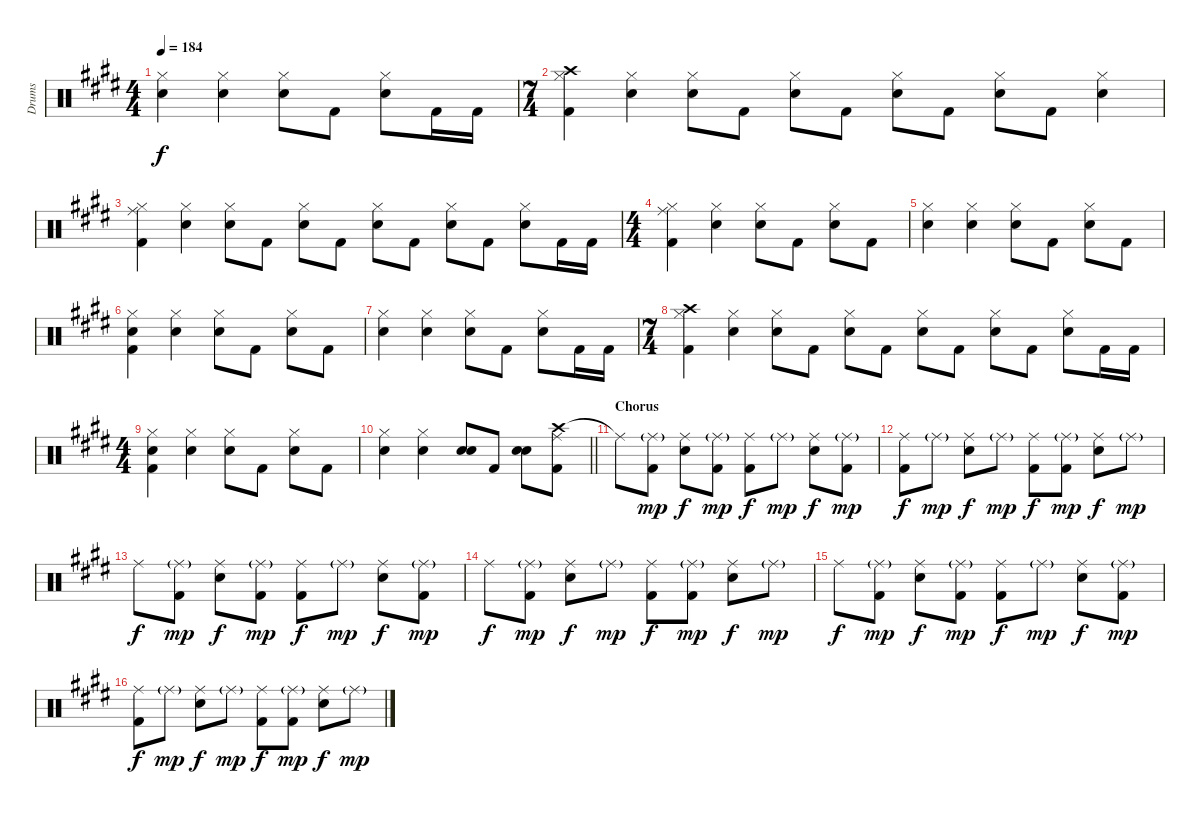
\track ("Drums" "Drums") {instrument percussion}
\staff {score}
\articulation defaults
\ts (4 4)
\tempo 184
\clef neutral
\ks c#minor
("Hi-Hat (closed)" "Snare (hit) 2").4{dy f} ("Hi-Hat (closed)" "Snare (hit) 2").4 ("Hi-Hat (closed)" "Snare (hit) 2").8 "Kick (hit) 2".8 ("Hi-Hat (closed)" "Snare (hit) 2").8 "Kick (hit) 2".16 "Kick (hit) 2".16 |
\ts (7 4)
("Crash high (hit)" "Hi-Hat (closed)" "Kick (hit) 2").4 ("Hi-Hat (closed)" "Snare (hit) 2").4 ("Hi-Hat (closed)" "Snare (hit) 2").8 "Kick (hit) 2".8 ("Hi-Hat (closed)" "Snare (hit) 2").8 "Kick (hit) 2".8 ("Hi-Hat (closed)" "Snare (hit) 2").8 "Kick (hit) 2".8 ("Hi-Hat (closed)" "Snare (hit) 2").8 "Kick (hit) 2".8 ("Hi-Hat (closed)" "Snare (hit) 2").4 |
("Ride (middle)" "Hi-Hat (closed)" "Kick (hit) 2").4 ("Hi-Hat (closed)" "Snare (hit) 2").4 ("Hi-Hat (closed)" "Snare (hit) 2").8 "Kick (hit) 2".8 ("Hi-Hat (closed)" "Snare (hit) 2").8 "Kick (hit) 2".8 ("Hi-Hat (closed)" "Snare (hit) 2").8 "Kick (hit) 2".8 ("Hi-Hat (closed)" "Snare (hit) 2").8 "Kick (hit) 2".8 ("Hi-Hat (closed)" "Snare (hit) 2").8 "Kick (hit) 2".16 "Kick (hit) 2".16 |
\ts (4 4)
("Ride (middle)" "Hi-Hat (closed)" "Kick (hit) 2").4 ("Hi-Hat (closed)" "Snare (hit) 2").4 ("Hi-Hat (closed)" "Snare (hit) 2").8 "Kick (hit) 2".8 ("Hi-Hat (closed)" "Snare (hit) 2").8 "Kick (hit) 2".8 |
("Hi-Hat (closed)" "Snare (hit) 2").4 ("Hi-Hat (closed)" "Snare (hit) 2").4 ("Hi-Hat (closed)" "Snare (hit) 2").8 "Kick (hit) 2".8 ("Hi-Hat (closed)" "Snare (hit) 2").8 "Kick (hit) 2".8 |
("Hi-Hat (closed)" "Snare (hit) 2" "Kick (hit) 2").4 ("Hi-Hat (closed)" "Snare (hit) 2").4 ("Hi-Hat (closed)" "Snare (hit) 2").8 "Kick (hit) 2".8 ("Hi-Hat (closed)" "Snare (hit) 2").8 "Kick (hit) 2".8 |
("Hi-Hat (closed)" "Snare (hit) 2").4 ("Hi-Hat (closed)" "Snare (hit) 2").4 ("Hi-Hat (closed)" "Snare (hit) 2").8 "Kick (hit) 2".8 ("Hi-Hat (closed)" "Snare (hit) 2").8 "Kick (hit) 2".16 "Kick (hit) 2".16 |
\ts (7 4)
("Crash high (hit)" "Hi-Hat (closed)" "Kick (hit) 2").4 ("Hi-Hat (closed)" "Snare (hit) 2").4 ("Hi-Hat (closed)" "Snare (hit) 2").8 "Kick (hit) 2".8 ("Hi-Hat (closed)" "Snare (hit) 2").8 "Kick (hit) 2".8 ("Hi-Hat (closed)" "Snare (hit) 2").8 "Kick (hit) 2".8 ("Hi-Hat (closed)" "Snare (hit) 2").8 "Kick (hit) 2".8 ("Hi-Hat (closed)" "Snare (hit) 2").8 "Kick (hit) 2".16 "Kick (hit) 2".16 |
\ts (4 4)
("Hi-Hat (closed)" "Snare (hit) 2" "Kick (hit) 2").4 ("Hi-Hat (closed)" "Snare (hit) 2").4 ("Hi-Hat (closed)" "Snare (hit) 2").8 "Kick (hit) 2".8 ("Hi-Hat (closed)" "Snare (hit) 2").8 "Kick (hit) 2".8 |
\barLineRight lightlight
("Hi-Hat (closed)" "Snare (hit) 2").4 ("Hi-Hat (closed)" "Snare (hit) 2").4 ("Snare (hit) 2" "Electric Snare (hit)").8 "Kick (hit) 2".8 ("Snare (hit) 2" "Electric Snare (hit)").8 ("Crash high (hit)" "Ride (middle)" "Kick (hit) 2").8 |
\section ("" "Chorus")
"Ride (middle)"{t}.8 ("Ride (middle)"{g} "Kick (hit) 2").8{dy mp} ("Ride (middle)" "Snare (hit) 2").8{dy f} ("Ride (middle)"{g} "Kick (hit) 2").8{dy mp} ("Ride (middle)" "Kick (hit) 2").8{dy f} "Ride (middle)"{g}.8{dy mp} ("Ride (middle)" "Snare (hit) 2").8{dy f} ("Ride (middle)"{g} "Kick (hit) 2").8{dy mp} |
("Ride (middle)" "Kick (hit) 2").8{dy f} "Ride (middle)"{g}.8{dy mp} ("Ride (middle)" "Snare (hit) 2").8{dy f} "Ride (middle)"{g}.8{dy mp} ("Ride (middle)" "Kick (hit) 2").8{dy f} ("Ride (middle)"{g} "Kick (hit) 2").8{dy mp} ("Ride (middle)" "Snare (hit) 2").8{dy f} "Ride (middle)"{g}.8{dy mp} |
"Ride (middle)".8{dy f} ("Ride (middle)"{g} "Kick (hit) 2").8{dy mp} ("Ride (middle)" "Snare (hit) 2").8{dy f} ("Ride (middle)"{g} "Kick (hit) 2").8{dy mp} ("Ride (middle)" "Kick (hit) 2").8{dy f} "Ride (middle)"{g}.8{dy mp} ("Ride (middle)" "Snare (hit) 2").8{dy f} ("Ride (middle)"{g} "Kick (hit) 2").8{dy mp} |
"Ride (middle)".8{dy f} ("Ride (middle)"{g} "Kick (hit) 2").8{dy mp} ("Ride (middle)" "Snare (hit) 2").8{dy f} "Ride (middle)"{g}.8{dy mp} ("Ride (middle)" "Kick (hit) 2").8{dy f} ("Ride (middle)"{g} "Kick (hit) 2").8{dy mp} ("Ride (middle)" "Snare (hit) 2").8{dy f} "Ride (middle)"{g}.8{dy mp} |
"Ride (middle)".8{dy f} ("Ride (middle)"{g} "Kick (hit) 2").8{dy mp} ("Ride (middle)" "Snare (hit) 2").8{dy f} ("Ride (middle)"{g} "Kick (hit) 2").8{dy mp} ("Ride (middle)" "Kick (hit) 2").8{dy f} "Ride (middle)"{g}.8{dy mp} ("Ride (middle)" "Snare (hit) 2").8{dy f} ("Ride (middle)"{g} "Kick (hit) 2").8{dy mp} |
("Ride (middle)" "Kick (hit) 2").8{dy f} "Ride (middle)"{g}.8{dy mp} ("Ride (middle)" "Snare (hit) 2").8{dy f} "Ride (middle)"{g}.8{dy mp} ("Ride (middle)" "Kick (hit) 2").8{dy f} ("Ride (middle)"{g} "Kick (hit) 2").8{dy mp} ("Ride (middle)" "Snare (hit) 2").8{dy f} "Ride (middle)"{g}.8{dy mp}
